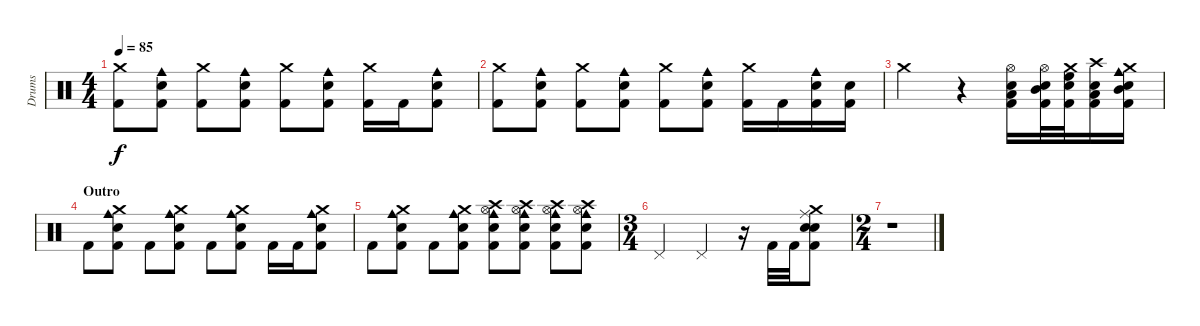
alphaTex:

\track ("Drums" "Drums") {instrument percussion}
\staff {score}
\articulation defaults
\ts (4 4)
\tempo 85
\clef neutral
\ks c
("Crash medium (hit)" "Kick (hit) 2").8{dy f} ("Cowbell medium (hit)" "Electric Snare (hit)" "Kick (hit) 2").8 ("Crash medium (hit)" "Kick (hit) 2").8 ("Cowbell medium (hit)" "Electric Snare (hit)" "Kick (hit) 2").8 ("Crash medium (hit)" "Kick (hit) 2").8 ("Cowbell medium (hit)" "Electric Snare (hit)" "Kick (hit) 2").8 ("Crash medium (hit)" "Kick (hit) 2").16 "Kick (hit) 2".16 ("Cowbell medium (hit)" "Electric Snare (hit)" "Kick (hit) 2").8 |
("Crash medium (hit)" "Kick (hit) 2").8 ("Cowbell medium (hit)" "Electric Snare (hit)" "Kick (hit) 2").8 ("Crash medium (hit)" "Kick (hit) 2").8 ("Cowbell medium (hit)" "Electric Snare (hit)" "Kick (hit) 2").8 ("Crash medium (hit)" "Kick (hit) 2").8 ("Cowbell medium (hit)" "Electric Snare (hit)" "Kick (hit) 2").8 ("Crash medium (hit)" "Kick (hit) 2").16 "Kick (hit) 2".16 ("Cowbell medium (hit)" "Electric Snare (hit)" "Kick (hit) 2").16 ("Electric Snare (hit)" "Kick (hit) 2").16 |
"Crash medium (hit)".2 r.4 ("Hi-Hat (open)" "Low Tom (hit)" "Snare (hit) 2" "Kick (hit) 2").16 ("Hi-Hat (open)" "Mid Tom (hit)" "Electric Snare (hit)" "Kick (hit) 2").32 ("Crash medium (hit)" "High Floor Tom (hit)" "Electric Snare (hit)" "Kick (hit) 2").32 ("Crash high (hit)" "Low Floor Tom (hit)" "Electric Snare (hit)" "Kick (hit) 2").16 ("Cowbell medium (hit)" "Crash medium (hit)" "Mid Tom (hit)" "Electric Snare (hit)" "Kick (hit) 2").16 |
\section ("" "Outro")
"Kick (hit) 2".8 ("Cowbell medium (hit)" "Crash medium (hit)" "Electric Snare (hit)" "Kick (hit) 2").8 "Kick (hit) 2".8 ("Cowbell medium (hit)" "Crash medium (hit)" "Electric Snare (hit)" "Kick (hit) 2").8 "Kick (hit) 2".8 ("Cowbell medium (hit)" "Crash medium (hit)" "Electric Snare (hit)" "Kick (hit) 2").8 "Kick (hit) 2".16 "Kick (hit) 2".16 ("Cowbell medium (hit)" "Crash medium (hit)" "Electric Snare (hit)" "Kick (hit) 2").8 |
"Kick (hit) 2".8 ("Cowbell medium (hit)" "Crash medium (hit)" "Electric Snare (hit)" "Kick (hit) 2").8 "Kick (hit) 2".8 ("Cowbell medium (hit)" "Crash medium (hit)" "Electric Snare (hit)" "Kick (hit) 2").8 ("Cowbell medium (hit)" "Crash high (hit)" "Hi-Hat (open)" "Electric Snare (hit)" "Kick (hit) 2").8 ("Cowbell medium (hit)" "Crash high (hit)" "Hi-Hat (open)" "Electric Snare (hit)" "Kick (hit) 2").8 ("Cowbell medium (hit)" "Crash high (hit)" "Hi-Hat (open)" "Electric Snare (hit)" "Kick (hit) 2").8 ("Cowbell medium (hit)" "Crash high (hit)" "Hi-Hat (open)" "Electric Snare (hit)" "Kick (hit) 2").8 |
\ts (3 4)
"Pedal Hi-Hat (hit)".4 "Pedal Hi-Hat (hit)".4 r.16 "Kick (hit) 2".32 "Kick (hit) 2".32 ("Crash medium (hit)" "Electric Snare (hit)" "Ride (middle)" "Snare (hit) 2" "Kick (hit) 2").8 |
\ts (2 4)
r.1
